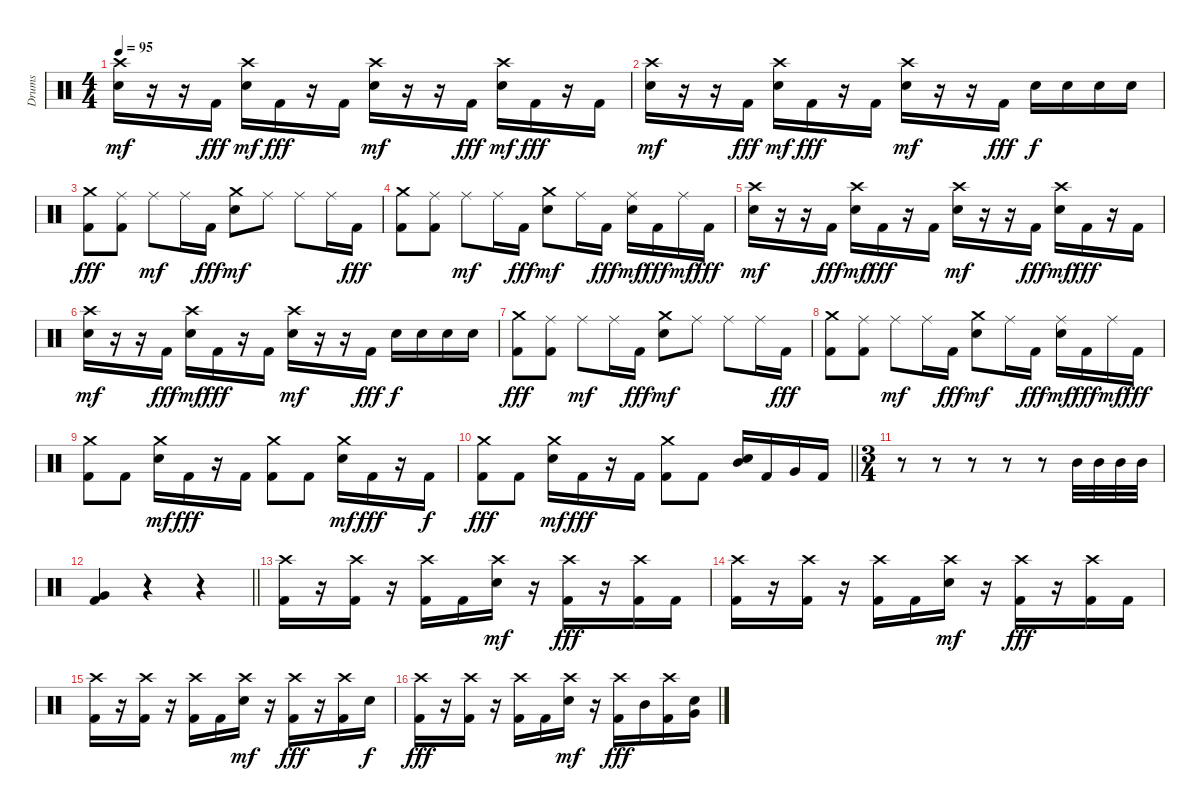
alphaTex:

\track ("Drums" "Drums") {instrument percussion}
\staff {score}
\articulation defaults
\ts (4 4)
\tempo 95
\clef neutral
\ks c
("Crash high (hit)" "Snare (hit) 2").16{dy mf} r.16 r.16 "Kick (hit) 2".16{dy fff} ("Crash high (hit)" "Snare (hit) 2").16{dy mf} "Kick (hit) 2".16{dy fff} r.16 "Kick (hit) 2".16 ("Crash high (hit)" "Snare (hit) 2").16{dy mf} r.16 r.16 "Kick (hit) 2".16{dy fff} ("Crash high (hit)" "Snare (hit) 2").16{dy mf} "Kick (hit) 2".16{dy fff} r.16 "Kick (hit) 2".16 |
("Crash high (hit)" "Snare (hit) 2").16{dy mf} r.16 r.16 "Kick (hit) 2".16{dy fff} ("Crash high (hit)" "Snare (hit) 2").16{dy mf} "Kick (hit) 2".16{dy fff} r.16 "Kick (hit) 2".16 ("Crash high (hit)" "Snare (hit) 2").16{dy mf} r.16 r.16 "Kick (hit) 2".16{dy fff} "Snare (hit) 2".16{dy f} "Snare (hit) 2".16 "Snare (hit) 2".16 "Snare (hit) 2".16 |
("Crash medium (hit)" "Kick (hit) 2").8{dy fff} ("Ride (middle)" "Kick (hit) 2").8 "Ride (middle)".8{dy mf} "Ride (middle)".16 "Kick (hit) 2".16{dy fff} ("Crash medium (hit)" "Snare (hit) 2").8{dy mf} "Ride (middle)".8 "Ride (middle)".8 "Ride (middle)".16 "Kick (hit) 2".16{dy fff} |
("Crash medium (hit)" "Kick (hit) 2").8 ("Ride (middle)" "Kick (hit) 2").8 "Ride (middle)".8{dy mf} "Ride (middle)".16 "Kick (hit) 2".16{dy fff} ("Crash medium (hit)" "Snare (hit) 2").8{dy mf} "Ride (middle)".16 "Kick (hit) 2".16{dy fff} ("Ride (middle)" "Snare (hit) 2").16{dy mf} "Kick (hit) 2".16{dy fff} "Ride (middle)".16{dy mf} "Kick (hit) 2".16{dy fff} |
("Crash high (hit)" "Snare (hit) 2").16{dy mf} r.16 r.16 "Kick (hit) 2".16{dy fff} ("Crash high (hit)" "Snare (hit) 2").16{dy mf} "Kick (hit) 2".16{dy fff} r.16 "Kick (hit) 2".16 ("Crash high (hit)" "Snare (hit) 2").16{dy mf} r.16 r.16 "Kick (hit) 2".16{dy fff} ("Crash high (hit)" "Snare (hit) 2").16{dy mf} "Kick (hit) 2".16{dy fff} r.16 "Kick (hit) 2".16 |
("Crash high (hit)" "Snare (hit) 2").16{dy mf} r.16 r.16 "Kick (hit) 2".16{dy fff} ("Crash high (hit)" "Snare (hit) 2").16{dy mf} "Kick (hit) 2".16{dy fff} r.16 "Kick (hit) 2".16 ("Crash high (hit)" "Snare (hit) 2").16{dy mf} r.16 r.16 "Kick (hit) 2".16{dy fff} "Snare (hit) 2".16{dy f} "Snare (hit) 2".16 "Snare (hit) 2".16 "Snare (hit) 2".16 |
("Crash medium (hit)" "Kick (hit) 2").8{dy fff} ("Ride (middle)" "Kick (hit) 2").8 "Ride (middle)".8{dy mf} "Ride (middle)".16 "Kick (hit) 2".16{dy fff} ("Crash medium (hit)" "Snare (hit) 2").8{dy mf} "Ride (middle)".8 "Ride (middle)".8 "Ride (middle)".16 "Kick (hit) 2".16{dy fff} |
("Crash medium (hit)" "Kick (hit) 2").8 ("Ride (middle)" "Kick (hit) 2").8 "Ride (middle)".8{dy mf} "Ride (middle)".16 "Kick (hit) 2".16{dy fff} ("Crash medium (hit)" "Snare (hit) 2").8{dy mf} "Ride (middle)".16 "Kick (hit) 2".16{dy fff} ("Ride (middle)" "Snare (hit) 2").16{dy mf} "Kick (hit) 2".16{dy fff} "Ride (middle)".16{dy mf} "Kick (hit) 2".16{dy fff} |
("Crash medium (hit)" "Kick (hit) 2").8 "Kick (hit) 2".8 ("Crash medium (hit)" "Snare (hit) 2").16{dy mf} "Kick (hit) 2".16{dy fff} r.16 "Kick (hit) 2".16 ("Crash medium (hit)" "Kick (hit) 2").8 "Kick (hit) 2".8 ("Crash medium (hit)" "Snare (hit) 2").16{dy mf} "Kick (hit) 2".16{dy fff} r.16 "Kick (hit) 2".16{dy f} |
\barLineRight lightlight
("Crash medium (hit)" "Kick (hit) 2").8{dy fff} "Kick (hit) 2".8 ("Crash medium (hit)" "Snare (hit) 2").16{dy mf} "Kick (hit) 2".16{dy fff} r.16 "Kick (hit) 2".16 ("Crash medium (hit)" "Kick (hit) 2").8 "Kick (hit) 2".8 ("Mid Tom (hit)" "Snare (hit) 2").16 "Kick (hit) 2".16 "Very Low Tom (hit)".16 "Kick (hit) 2".16 |
\ts (3 4)
r.8 r.8 r.8 r.8 r.8 "Mid Tom (hit)".32 "Mid Tom (hit)".32 "Mid Tom (hit)".32 "Mid Tom (hit)".32 |
\barLineRight lightlight
("Very Low Tom (hit)" "Kick (hit) 2").4 r.4 r.4 |
("Crash high (hit)" "Kick (hit) 2").16 r.16 ("Crash high (hit)" "Kick (hit) 2").16 r.16 ("Crash high (hit)" "Kick (hit) 2").16 "Kick (hit) 2".16 ("Crash high (hit)" "Snare (hit) 2").16{dy mf} r.16 ("Crash high (hit)" "Kick (hit) 2").16{dy fff} r.16 ("Crash high (hit)" "Kick (hit) 2").16 "Kick (hit) 2".16 |
("Crash high (hit)" "Kick (hit) 2").16 r.16 ("Crash high (hit)" "Kick (hit) 2").16 r.16 ("Crash high (hit)" "Kick (hit) 2").16 "Kick (hit) 2".16 ("Crash high (hit)" "Snare (hit) 2").16{dy mf} r.16 ("Crash high (hit)" "Kick (hit) 2").16{dy fff} r.16 ("Crash high (hit)" "Kick (hit) 2").16 "Kick (hit) 2".16 |
("Crash high (hit)" "Kick (hit) 2").16 r.16 ("Crash high (hit)" "Kick (hit) 2").16 r.16 ("Crash high (hit)" "Kick (hit) 2").16 "Kick (hit) 2".16 ("Crash high (hit)" "Snare (hit) 2").16{dy mf} r.16 ("Crash high (hit)" "Kick (hit) 2").16{dy fff} r.16 ("Crash high (hit)" "Kick (hit) 2").16 "Snare (hit) 2".16{dy f} |
("Crash high (hit)" "Kick (hit) 2").16{dy fff} r.16 ("Crash high (hit)" "Kick (hit) 2").16 r.16 ("Crash high (hit)" "Kick (hit) 2").16 "Kick (hit) 2".16 ("Crash high (hit)" "Snare (hit) 2").16{dy mf} r.16 ("Crash high (hit)" "Kick (hit) 2").16{dy fff} "Mid Tom (hit)".16 ("Crash high (hit)" "Kick (hit) 2").16 ("Snare (hit) 2" "Very Low Tom (hit)").16
